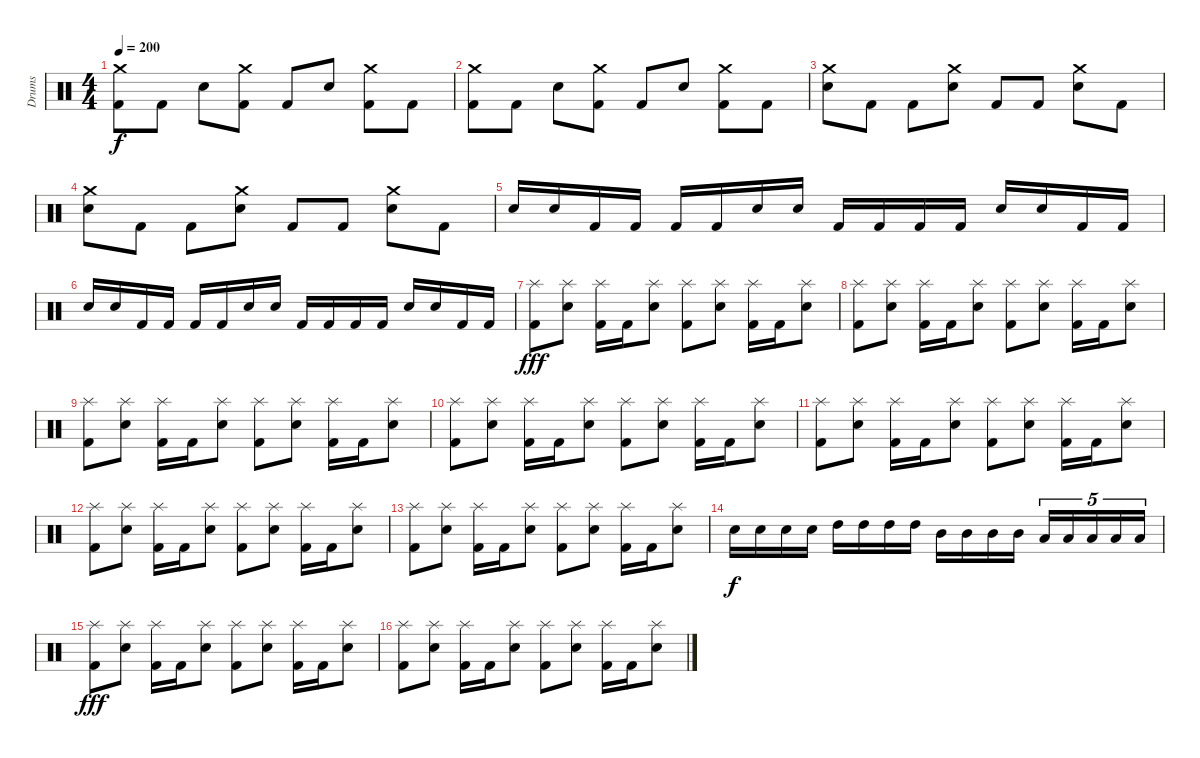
\track ("Drums" "Drums") {instrument percussion}
\staff {score}
\articulation defaults
\ts (4 4)
\tempo 200
\clef neutral
\ks c
("Crash medium (hit)" "Kick (hit) 2").8{dy f} "Kick (hit) 2".8 "Electric Snare (hit)".8 ("Crash medium (hit)" "Kick (hit) 2").8 "Kick (hit) 2".8 "Electric Snare (hit)".8 ("Crash medium (hit)" "Kick (hit) 2").8 "Kick (hit) 2".8 |
("Crash medium (hit)" "Kick (hit) 2").8 "Kick (hit) 2".8 "Electric Snare (hit)".8 ("Crash medium (hit)" "Kick (hit) 2").8 "Kick (hit) 2".8 "Electric Snare (hit)".8 ("Crash medium (hit)" "Kick (hit) 2").8 "Kick (hit) 2".8 |
("Crash medium (hit)" "Electric Snare (hit)").8 "Kick (hit) 2".8 "Kick (hit) 2".8 ("Crash medium (hit)" "Electric Snare (hit)").8 "Kick (hit) 2".8 "Kick (hit) 2".8 ("Crash medium (hit)" "Electric Snare (hit)").8 "Kick (hit) 2".8 |
("Crash medium (hit)" "Electric Snare (hit)").8 "Kick (hit) 2".8 "Kick (hit) 2".8 ("Crash medium (hit)" "Electric Snare (hit)").8 "Kick (hit) 2".8 "Kick (hit) 2".8 ("Crash medium (hit)" "Electric Snare (hit)").8 "Kick (hit) 2".8 |
"Electric Snare (hit)".16 "Electric Snare (hit)".16 "Kick (hit) 2".16 "Kick (hit) 2".16 "Kick (hit) 2".16 "Kick (hit) 2".16 "Electric Snare (hit)".16 "Electric Snare (hit)".16 "Kick (hit) 2".16 "Kick (hit) 2".16 "Kick (hit) 2".16 "Kick (hit) 2".16 "Electric Snare (hit)".16 "Electric Snare (hit)".16 "Kick (hit) 2".16 "Kick (hit) 2".16 |
"Electric Snare (hit)".16 "Electric Snare (hit)".16 "Kick (hit) 2".16 "Kick (hit) 2".16 "Kick (hit) 2".16 "Kick (hit) 2".16 "Electric Snare (hit)".16 "Electric Snare (hit)".16 "Kick (hit) 2".16 "Kick (hit) 2".16 "Kick (hit) 2".16 "Kick (hit) 2".16 "Electric Snare (hit)".16 "Electric Snare (hit)".16 "Kick (hit) 2".16 "Kick (hit) 2".16 |
("Splash (hit)" "Kick (hit) 2").8{dy fff} ("Splash (hit)" "Electric Snare (hit)").8 ("Splash (hit)" "Kick (hit) 2").16 "Kick (hit) 2".16 ("Splash (hit)" "Electric Snare (hit)").8 ("Splash (hit)" "Kick (hit) 2").8 ("Splash (hit)" "Electric Snare (hit)").8 ("Splash (hit)" "Kick (hit) 2").16 "Kick (hit) 2".16 ("Splash (hit)" "Electric Snare (hit)").8 |
("Splash (hit)" "Kick (hit) 2").8 ("Splash (hit)" "Electric Snare (hit)").8 ("Splash (hit)" "Kick (hit) 2").16 "Kick (hit) 2".16 ("Splash (hit)" "Electric Snare (hit)").8 ("Splash (hit)" "Kick (hit) 2").8 ("Splash (hit)" "Electric Snare (hit)").8 ("Splash (hit)" "Kick (hit) 2").16 "Kick (hit) 2".16 ("Splash (hit)" "Electric Snare (hit)").8 |
("Splash (hit)" "Kick (hit) 2").8 ("Splash (hit)" "Electric Snare (hit)").8 ("Splash (hit)" "Kick (hit) 2").16 "Kick (hit) 2".16 ("Splash (hit)" "Electric Snare (hit)").8 ("Splash (hit)" "Kick (hit) 2").8 ("Splash (hit)" "Electric Snare (hit)").8 ("Splash (hit)" "Kick (hit) 2").16 "Kick (hit) 2".16 ("Splash (hit)" "Electric Snare (hit)").8 |
("Splash (hit)" "Kick (hit) 2").8 ("Splash (hit)" "Electric Snare (hit)").8 ("Splash (hit)" "Kick (hit) 2").16 "Kick (hit) 2".16 ("Splash (hit)" "Electric Snare (hit)").8 ("Splash (hit)" "Kick (hit) 2").8 ("Splash (hit)" "Electric Snare (hit)").8 ("Splash (hit)" "Kick (hit) 2").16 "Kick (hit) 2".16 ("Splash (hit)" "Electric Snare (hit)").8 |
("Splash (hit)" "Kick (hit) 2").8 ("Splash (hit)" "Electric Snare (hit)").8 ("Splash (hit)" "Kick (hit) 2").16 "Kick (hit) 2".16 ("Splash (hit)" "Electric Snare (hit)").8 ("Splash (hit)" "Kick (hit) 2").8 ("Splash (hit)" "Electric Snare (hit)").8 ("Splash (hit)" "Kick (hit) 2").16 "Kick (hit) 2".16 ("Splash (hit)" "Electric Snare (hit)").8 |
("Splash (hit)" "Kick (hit) 2").8 ("Splash (hit)" "Electric Snare (hit)").8 ("Splash (hit)" "Kick (hit) 2").16 "Kick (hit) 2".16 ("Splash (hit)" "Electric Snare (hit)").8 ("Splash (hit)" "Kick (hit) 2").8 ("Splash (hit)" "Electric Snare (hit)").8 ("Splash (hit)" "Kick (hit) 2").16 "Kick (hit) 2".16 ("Splash (hit)" "Electric Snare (hit)").8 |
("Splash (hit)" "Kick (hit) 2").8 ("Splash (hit)" "Electric Snare (hit)").8 ("Splash (hit)" "Kick (hit) 2").16 "Kick (hit) 2".16 ("Splash (hit)" "Electric Snare (hit)").8 ("Splash (hit)" "Kick (hit) 2").8 ("Splash (hit)" "Electric Snare (hit)").8 ("Splash (hit)" "Kick (hit) 2").16 "Kick (hit) 2".16 ("Splash (hit)" "Electric Snare (hit)").8 |
"Electric Snare (hit)".16{dy f} "Electric Snare (hit)".16 "Electric Snare (hit)".16 "Electric Snare (hit)".16 "High Tom (hit)".16 "High Tom (hit)".16 "High Tom (hit)".16 "High Tom (hit)".16 "Mid Tom (hit)".16 "Mid Tom (hit)".16 "Mid Tom (hit)".16 "Mid Tom (hit)".16 "Low Tom (hit)".16{tu (5 4)} "Low Tom (hit)".16{tu (5 4)} "Low Tom (hit)".16{tu (5 4)} "Low Tom (hit)".16{tu (5 4)} "Low Tom (hit)".16{tu (5 4)} |
("Splash (hit)" "Kick (hit) 2").8{dy fff} ("Splash (hit)" "Electric Snare (hit)").8 ("Splash (hit)" "Kick (hit) 2").16 "Kick (hit) 2".16 ("Splash (hit)" "Electric Snare (hit)").8 ("Splash (hit)" "Kick (hit) 2").8 ("Splash (hit)" "Electric Snare (hit)").8 ("Splash (hit)" "Kick (hit) 2").16 "Kick (hit) 2".16 ("Splash (hit)" "Electric Snare (hit)").8 |
("Splash (hit)" "Kick (hit) 2").8 ("Splash (hit)" "Electric Snare (hit)").8 ("Splash (hit)" "Kick (hit) 2").16 "Kick (hit) 2".16 ("Splash (hit)" "Electric Snare (hit)").8 ("Splash (hit)" "Kick (hit) 2").8 ("Splash (hit)" "Electric Snare (hit)").8 ("Splash (hit)" "Kick (hit) 2").16 "Kick (hit) 2".16 ("Splash (hit)" "Electric Snare (hit)").8
